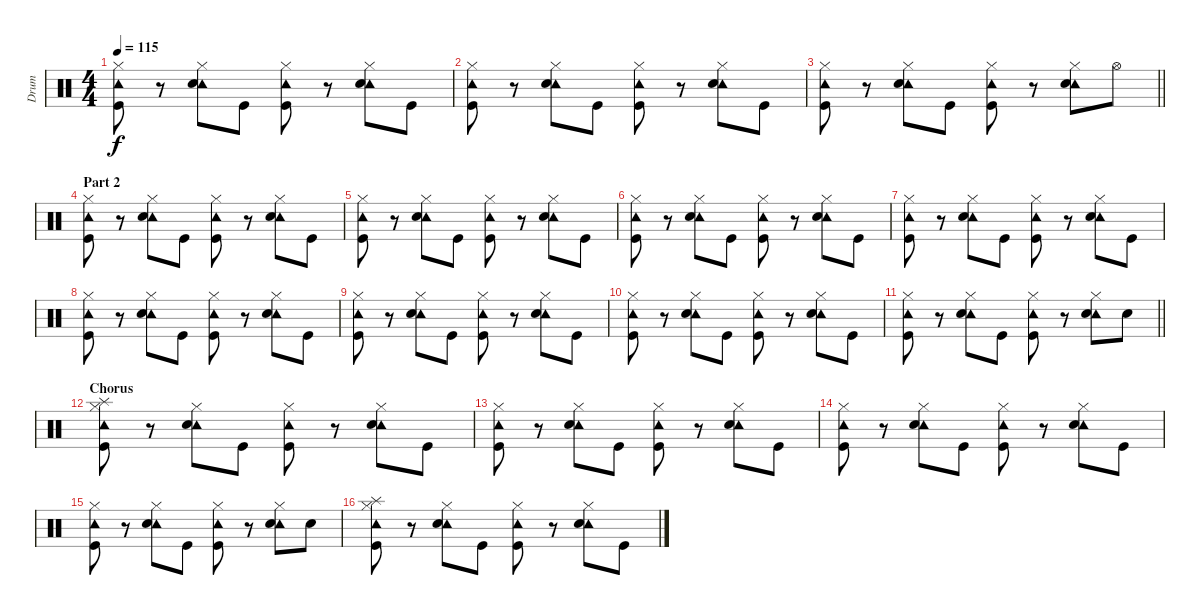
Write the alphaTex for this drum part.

\track ("Drum" "Drum") {instrument percussion}
\staff {score}
\articulation defaults
\ts (4 4)
\tempo 115
\clef neutral
\ks c
("Hi-Hat (closed)" "Tambourine (hit)" "Kick (hit)").8{dy f} r.8 ("Hi-Hat (closed)" "Tambourine (hit)" "Snare (hit) 2").8 "Kick (hit)".8 ("Hi-Hat (closed)" "Tambourine (hit)" "Kick (hit)").8 r.8 ("Hi-Hat (closed)" "Tambourine (hit)" "Snare (hit) 2").8 "Kick (hit)".8 |
("Hi-Hat (closed)" "Tambourine (hit)" "Kick (hit)").8 r.8 ("Hi-Hat (closed)" "Tambourine (hit)" "Snare (hit) 2").8 "Kick (hit)".8 ("Hi-Hat (closed)" "Tambourine (hit)" "Kick (hit)").8 r.8 ("Hi-Hat (closed)" "Tambourine (hit)" "Snare (hit) 2").8 "Kick (hit)".8 |
\barLineRight lightlight
("Hi-Hat (closed)" "Tambourine (hit)" "Kick (hit)").8 r.8 ("Hi-Hat (closed)" "Tambourine (hit)" "Snare (hit) 2").8 "Kick (hit)".8 ("Hi-Hat (closed)" "Tambourine (hit)" "Kick (hit)").8 r.8 ("Hi-Hat (closed)" "Tambourine (hit)" "Snare (hit) 2").8 "Hi-Hat (open)".8 |
\section ("" "Part 2")
("Hi-Hat (closed)" "Tambourine (hit)" "Kick (hit)").8 r.8 ("Hi-Hat (closed)" "Tambourine (hit)" "Snare (hit) 2").8 "Kick (hit)".8 ("Hi-Hat (closed)" "Tambourine (hit)" "Kick (hit)").8 r.8 ("Hi-Hat (closed)" "Tambourine (hit)" "Snare (hit) 2").8 "Kick (hit)".8 |
("Hi-Hat (closed)" "Tambourine (hit)" "Kick (hit)").8 r.8 ("Hi-Hat (closed)" "Tambourine (hit)" "Snare (hit) 2").8 "Kick (hit)".8 ("Hi-Hat (closed)" "Tambourine (hit)" "Kick (hit)").8 r.8 ("Hi-Hat (closed)" "Tambourine (hit)" "Snare (hit) 2").8 "Kick (hit)".8 |
("Hi-Hat (closed)" "Tambourine (hit)" "Kick (hit)").8 r.8 ("Hi-Hat (closed)" "Tambourine (hit)" "Snare (hit) 2").8 "Kick (hit)".8 ("Hi-Hat (closed)" "Tambourine (hit)" "Kick (hit)").8 r.8 ("Hi-Hat (closed)" "Tambourine (hit)" "Snare (hit) 2").8 "Kick (hit)".8 |
("Hi-Hat (closed)" "Tambourine (hit)" "Kick (hit)").8 r.8 ("Hi-Hat (closed)" "Tambourine (hit)" "Snare (hit) 2").8 "Kick (hit)".8 ("Hi-Hat (closed)" "Tambourine (hit)" "Kick (hit)").8 r.8 ("Hi-Hat (closed)" "Tambourine (hit)" "Snare (hit) 2").8 "Kick (hit)".8 |
("Hi-Hat (closed)" "Tambourine (hit)" "Kick (hit)").8 r.8 ("Hi-Hat (closed)" "Tambourine (hit)" "Snare (hit) 2").8 "Kick (hit)".8 ("Hi-Hat (closed)" "Tambourine (hit)" "Kick (hit)").8 r.8 ("Hi-Hat (closed)" "Tambourine (hit)" "Snare (hit) 2").8 "Kick (hit)".8 |
("Hi-Hat (closed)" "Tambourine (hit)" "Kick (hit)").8 r.8 ("Hi-Hat (closed)" "Tambourine (hit)" "Snare (hit) 2").8 "Kick (hit)".8 ("Hi-Hat (closed)" "Tambourine (hit)" "Kick (hit)").8 r.8 ("Hi-Hat (closed)" "Tambourine (hit)" "Snare (hit) 2").8 "Kick (hit)".8 |
("Hi-Hat (closed)" "Tambourine (hit)" "Kick (hit)").8 r.8 ("Hi-Hat (closed)" "Tambourine (hit)" "Snare (hit) 2").8 "Kick (hit)".8 ("Hi-Hat (closed)" "Tambourine (hit)" "Kick (hit)").8 r.8 ("Hi-Hat (closed)" "Tambourine (hit)" "Snare (hit) 2").8 "Kick (hit)".8 |
\barLineRight lightlight
("Hi-Hat (closed)" "Tambourine (hit)" "Kick (hit)").8 r.8 ("Hi-Hat (closed)" "Tambourine (hit)" "Snare (hit) 2").8 "Kick (hit)".8 ("Hi-Hat (closed)" "Tambourine (hit)" "Kick (hit)").8 r.8 ("Hi-Hat (closed)" "Tambourine (hit)" "Snare (hit) 2").8 "Snare (hit) 2".8 |
\section ("" "Chorus")
("Splash (hit)" "Hi-Hat (closed)" "Tambourine (hit)" "Kick (hit)").8 r.8 ("Hi-Hat (closed)" "Tambourine (hit)" "Snare (hit) 2").8 "Kick (hit)".8 ("Hi-Hat (closed)" "Tambourine (hit)" "Kick (hit)").8 r.8 ("Hi-Hat (closed)" "Tambourine (hit)" "Snare (hit) 2").8 "Kick (hit)".8 |
("Hi-Hat (closed)" "Tambourine (hit)" "Kick (hit)").8 r.8 ("Hi-Hat (closed)" "Tambourine (hit)" "Snare (hit) 2").8 "Kick (hit)".8 ("Hi-Hat (closed)" "Tambourine (hit)" "Kick (hit)").8 r.8 ("Hi-Hat (closed)" "Tambourine (hit)" "Snare (hit) 2").8 "Kick (hit)".8 |
("Hi-Hat (closed)" "Tambourine (hit)" "Kick (hit)").8 r.8 ("Hi-Hat (closed)" "Tambourine (hit)" "Snare (hit) 2").8 "Kick (hit)".8 ("Hi-Hat (closed)" "Tambourine (hit)" "Kick (hit)").8 r.8 ("Hi-Hat (closed)" "Tambourine (hit)" "Snare (hit) 2").8 "Kick (hit)".8 |
("Hi-Hat (closed)" "Tambourine (hit)" "Kick (hit)").8 r.8 ("Hi-Hat (closed)" "Tambourine (hit)" "Snare (hit) 2").8 "Kick (hit)".8 ("Hi-Hat (closed)" "Tambourine (hit)" "Kick (hit)").8 r.8 ("Hi-Hat (closed)" "Tambourine (hit)" "Snare (hit) 2").8 "Snare (hit) 2".8 |
("Splash (hit)" "Hi-Hat (closed)" "Tambourine (hit)" "Kick (hit)").8 r.8 ("Hi-Hat (closed)" "Tambourine (hit)" "Snare (hit) 2").8 "Kick (hit)".8 ("Hi-Hat (closed)" "Tambourine (hit)" "Kick (hit)").8 r.8 ("Hi-Hat (closed)" "Tambourine (hit)" "Snare (hit) 2").8 "Kick (hit)".8
